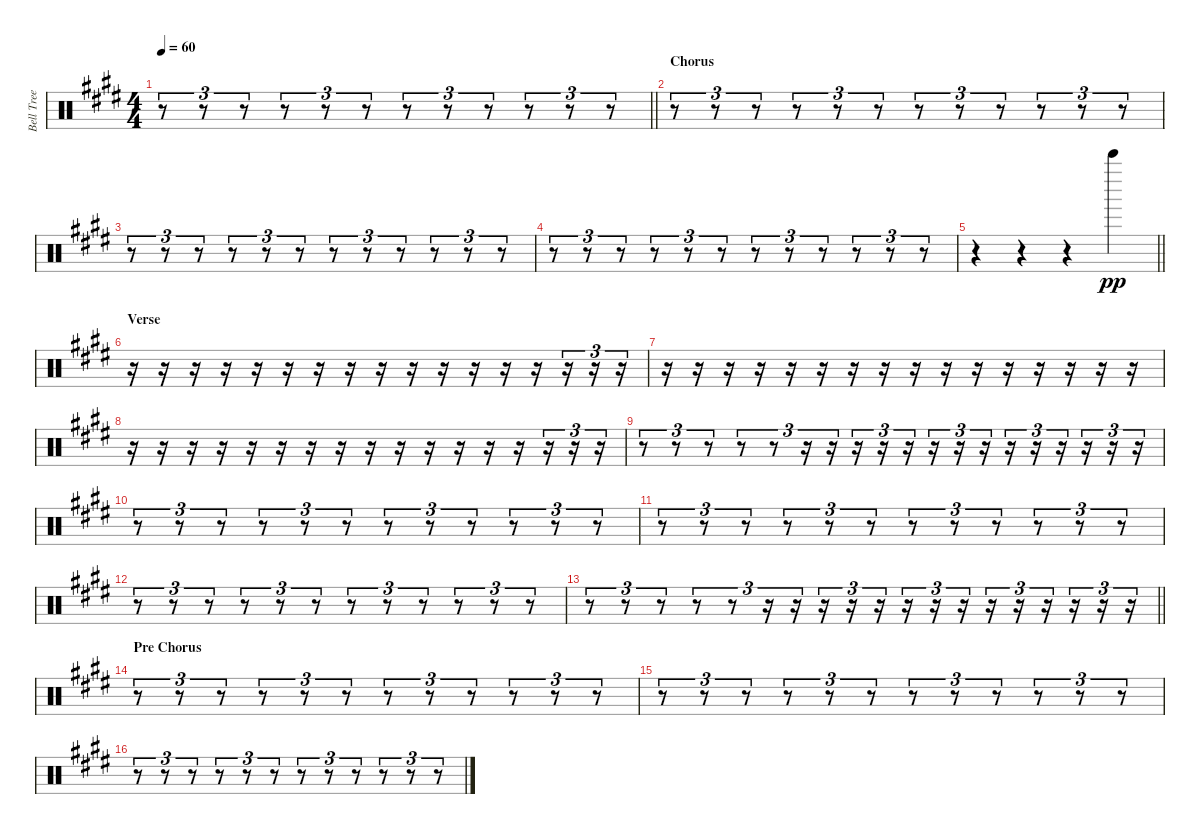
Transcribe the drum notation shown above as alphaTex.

\track ("Bell Tree" "Bell Tree") {instrument percussion}
\staff {score}
\articulation defaults
\ts (4 4)
\tempo 60
\clef neutral
\barLineRight lightlight
\ks e
r.8{tu (3 2) dy pp} r.8{tu (3 2)} r.8{tu (3 2)} r.8{tu (3 2)} r.8{tu (3 2)} r.8{tu (3 2)} r.8{tu (3 2)} r.8{tu (3 2)} r.8{tu (3 2)} r.8{tu (3 2)} r.8{tu (3 2)} r.8{tu (3 2)} |
\section ("" "Chorus")
r.8{tu (3 2)} r.8{tu (3 2)} r.8{tu (3 2)} r.8{tu (3 2)} r.8{tu (3 2)} r.8{tu (3 2)} r.8{tu (3 2)} r.8{tu (3 2)} r.8{tu (3 2)} r.8{tu (3 2)} r.8{tu (3 2)} r.8{tu (3 2)} |
r.8{tu (3 2)} r.8{tu (3 2)} r.8{tu (3 2)} r.8{tu (3 2)} r.8{tu (3 2)} r.8{tu (3 2)} r.8{tu (3 2)} r.8{tu (3 2)} r.8{tu (3 2)} r.8{tu (3 2)} r.8{tu (3 2)} r.8{tu (3 2)} |
r.8{tu (3 2)} r.8{tu (3 2)} r.8{tu (3 2)} r.8{tu (3 2)} r.8{tu (3 2)} r.8{tu (3 2)} r.8{tu (3 2)} r.8{tu (3 2)} r.8{tu (3 2)} r.8{tu (3 2)} r.8{tu (3 2)} r.8{tu (3 2)} |
\barLineRight lightlight
r.4 r.4 r.4 "Bell Tree (hit)".4 |
\section ("" "Verse")
r.16 r.16 r.16 r.16 r.16 r.16 r.16 r.16 r.16 r.16 r.16 r.16 r.16 r.16 r.16{tu (3 2)} r.16{tu (3 2)} r.16{tu (3 2)} |
r.16 r.16 r.16 r.16 r.16 r.16 r.16 r.16 r.16 r.16 r.16 r.16 r.16 r.16 r.16 r.16 |
r.16 r.16 r.16 r.16 r.16 r.16 r.16 r.16 r.16 r.16 r.16 r.16 r.16 r.16 r.16{tu (3 2)} r.16{tu (3 2)} r.16{tu (3 2)} |
r.8{tu (3 2)} r.8{tu (3 2)} r.8{tu (3 2)} r.8{tu (3 2)} r.8{tu (3 2)} r.16{tu (3 2)} r.16{tu (3 2)} r.16{tu (3 2)} r.16{tu (3 2)} r.16{tu (3 2)} r.16{tu (3 2)} r.16{tu (3 2)} r.16{tu (3 2)} r.16{tu (3 2)} r.16{tu (3 2)} r.16{tu (3 2)} r.16{tu (3 2)} r.16{tu (3 2)} r.16{tu (3 2)} |
r.8{tu (3 2)} r.8{tu (3 2)} r.8{tu (3 2)} r.8{tu (3 2)} r.8{tu (3 2)} r.8{tu (3 2)} r.8{tu (3 2)} r.8{tu (3 2)} r.8{tu (3 2)} r.8{tu (3 2)} r.8{tu (3 2)} r.8{tu (3 2)} |
r.8{tu (3 2)} r.8{tu (3 2)} r.8{tu (3 2)} r.8{tu (3 2)} r.8{tu (3 2)} r.8{tu (3 2)} r.8{tu (3 2)} r.8{tu (3 2)} r.8{tu (3 2)} r.8{tu (3 2)} r.8{tu (3 2)} r.8{tu (3 2)} |
r.8{tu (3 2)} r.8{tu (3 2)} r.8{tu (3 2)} r.8{tu (3 2)} r.8{tu (3 2)} r.8{tu (3 2)} r.8{tu (3 2)} r.8{tu (3 2)} r.8{tu (3 2)} r.8{tu (3 2)} r.8{tu (3 2)} r.8{tu (3 2)} |
\barLineRight lightlight
r.8{tu (3 2)} r.8{tu (3 2)} r.8{tu (3 2)} r.8{tu (3 2)} r.8{tu (3 2)} r.16{tu (3 2)} r.16{tu (3 2)} r.16{tu (3 2)} r.16{tu (3 2)} r.16{tu (3 2)} r.16{tu (3 2)} r.16{tu (3 2)} r.16{tu (3 2)} r.16{tu (3 2)} r.16{tu (3 2)} r.16{tu (3 2)} r.16{tu (3 2)} r.16{tu (3 2)} r.16{tu (3 2)} |
\section ("" "Pre Chorus")
r.8{tu (3 2)} r.8{tu (3 2)} r.8{tu (3 2)} r.8{tu (3 2)} r.8{tu (3 2)} r.8{tu (3 2)} r.8{tu (3 2)} r.8{tu (3 2)} r.8{tu (3 2)} r.8{tu (3 2)} r.8{tu (3 2)} r.8{tu (3 2)} |
r.8{tu (3 2)} r.8{tu (3 2)} r.8{tu (3 2)} r.8{tu (3 2)} r.8{tu (3 2)} r.8{tu (3 2)} r.8{tu (3 2)} r.8{tu (3 2)} r.8{tu (3 2)} r.8{tu (3 2)} r.8{tu (3 2)} r.8{tu (3 2)} |
r.8{tu (3 2)} r.8{tu (3 2)} r.8{tu (3 2)} r.8{tu (3 2)} r.8{tu (3 2)} r.8{tu (3 2)} r.8{tu (3 2)} r.8{tu (3 2)} r.8{tu (3 2)} r.8{tu (3 2)} r.8{tu (3 2)} r.8{tu (3 2)}
